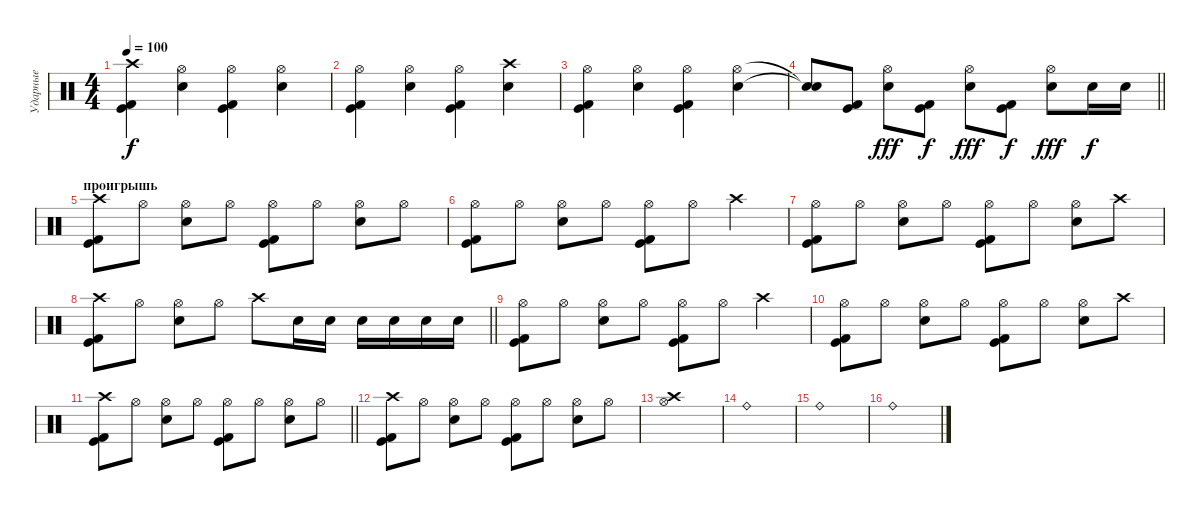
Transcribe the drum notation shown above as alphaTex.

\track ("Ударные" "Ударные") {instrument percussion}
\staff {score}
\articulation defaults
\ts (4 4)
\tempo 100
\clef neutral
\ks c
("Crash high (hit)" "Kick (hit) 2" "Kick (hit)").4{dy f} ("Hi-Hat (open)" "Electric Snare (hit)").4 ("Hi-Hat (open)" "Kick (hit) 2" "Kick (hit)").4 ("Hi-Hat (open)" "Electric Snare (hit)").4 |
("Hi-Hat (open)" "Kick (hit) 2" "Kick (hit)").4 ("Hi-Hat (open)" "Electric Snare (hit)").4 ("Hi-Hat (open)" "Kick (hit) 2" "Kick (hit)").4 ("Crash high (hit)" "Electric Snare (hit)").4 |
("Hi-Hat (open)" "Kick (hit) 2" "Kick (hit)").4 ("Hi-Hat (open)" "Electric Snare (hit)").4 ("Hi-Hat (open)" "Kick (hit) 2" "Kick (hit)").4 ("Hi-Hat (open)" "Electric Snare (hit)").4 |
\barLineRight lightlight
("Snare (hit)"{t} "Snare (hit)"{t}).8 ("Kick (hit) 2" "Kick (hit)").8 ("Hi-Hat (open)" "Electric Snare (hit)").8{dy fff} ("Kick (hit) 2" "Kick (hit)").8{dy f} ("Hi-Hat (open)" "Electric Snare (hit)").8{dy fff} ("Kick (hit) 2" "Kick (hit)").8{dy f} ("Hi-Hat (open)" "Electric Snare (hit)").8{dy fff} "Electric Snare (hit)".16{dy f} "Electric Snare (hit)".16 |
\section ("" "проигрышь")
("Crash high (hit)" "Kick (hit) 2" "Kick (hit)").8 "Hi-Hat (open)".8 ("Hi-Hat (open)" "Electric Snare (hit)").8 "Hi-Hat (open)".8 ("Hi-Hat (open)" "Kick (hit) 2" "Kick (hit)").8 "Hi-Hat (open)".8 ("Hi-Hat (open)" "Electric Snare (hit)").8 "Hi-Hat (open)".8 |
("Hi-Hat (open)" "Kick (hit) 2" "Kick (hit)").8 "Hi-Hat (open)".8 ("Hi-Hat (open)" "Electric Snare (hit)").8 "Hi-Hat (open)".8 ("Hi-Hat (open)" "Kick (hit) 2" "Kick (hit)").8 "Hi-Hat (open)".8 "Crash high (hit)".4 |
("Hi-Hat (open)" "Kick (hit) 2" "Kick (hit)").8 "Hi-Hat (open)".8 ("Hi-Hat (open)" "Electric Snare (hit)").8 "Hi-Hat (open)".8 ("Hi-Hat (open)" "Kick (hit) 2" "Kick (hit)").8 "Hi-Hat (open)".8 ("Hi-Hat (open)" "Electric Snare (hit)").8 "Crash high (hit)".8 |
\barLineRight lightlight
("Crash high (hit)" "Kick (hit) 2" "Kick (hit)").8 "Hi-Hat (open)".8 ("Hi-Hat (open)" "Electric Snare (hit)").8 "Hi-Hat (open)".8 "Crash high (hit)".8 "Snare (hit) 2".16 "Snare (hit) 2".16 "Snare (hit) 2".16 "Snare (hit) 2".16 "Snare (hit) 2".16 "Snare (hit) 2".16 |
("Hi-Hat (open)" "Kick (hit) 2" "Kick (hit)").8 "Hi-Hat (open)".8 ("Hi-Hat (open)" "Electric Snare (hit)").8 "Hi-Hat (open)".8 ("Hi-Hat (open)" "Kick (hit) 2" "Kick (hit)").8 "Hi-Hat (open)".8 "Crash high (hit)".4 |
("Hi-Hat (open)" "Kick (hit) 2" "Kick (hit)").8 "Hi-Hat (open)".8 ("Hi-Hat (open)" "Electric Snare (hit)").8 "Hi-Hat (open)".8 ("Hi-Hat (open)" "Kick (hit) 2" "Kick (hit)").8 "Hi-Hat (open)".8 ("Hi-Hat (open)" "Electric Snare (hit)").8 "Crash high (hit)".8 |
\barLineRight lightlight
("Crash high (hit)" "Kick (hit) 2" "Kick (hit)").8 "Hi-Hat (open)".8 ("Hi-Hat (open)" "Electric Snare (hit)").8 "Hi-Hat (open)".8 ("Hi-Hat (open)" "Kick (hit) 2" "Kick (hit)").8 "Hi-Hat (open)".8 ("Hi-Hat (open)" "Electric Snare (hit)").8 "Hi-Hat (open)".8 |
("Crash high (hit)" "Kick (hit) 2" "Kick (hit)").8 "Hi-Hat (open)".8 ("Hi-Hat (open)" "Electric Snare (hit)").8 "Hi-Hat (open)".8 ("Hi-Hat (open)" "Kick (hit) 2" "Kick (hit)").8 "Hi-Hat (open)".8 ("Hi-Hat (open)" "Electric Snare (hit)").8 "Hi-Hat (open)".8 |
("Hi-Hat (open)" "Crash high (hit)").1 |
"Ride (bell)".1 |
"Ride (bell)".1 |
"Ride (bell)".1
